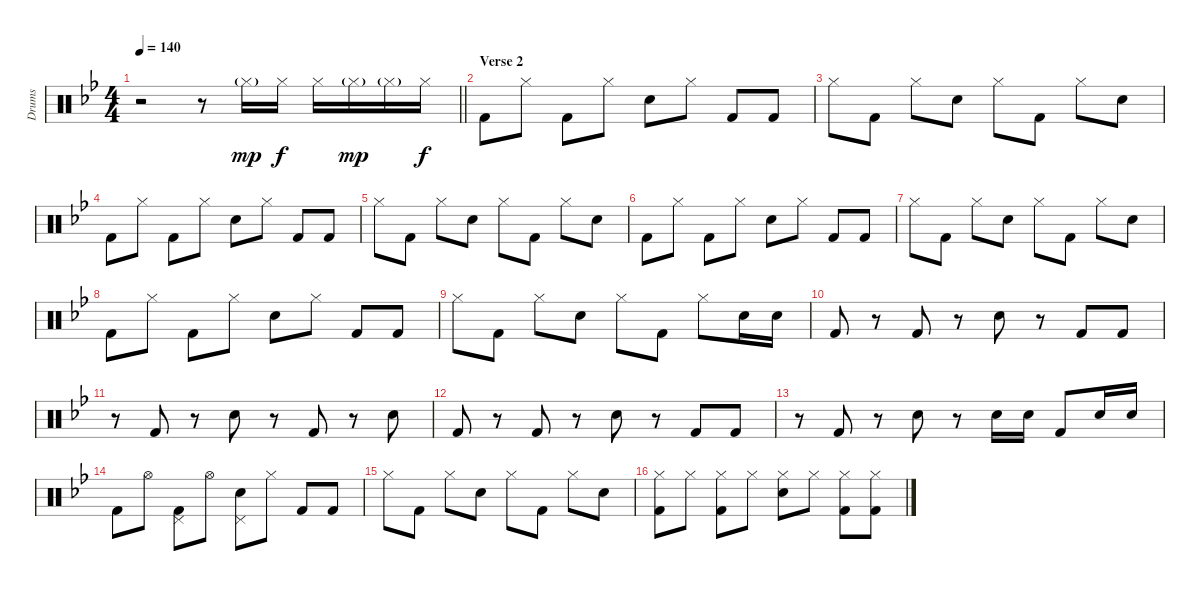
\track ("Drums" "Drums") {instrument percussion}
\staff {score}
\articulation defaults
\ts (4 4)
\tempo 140
\clef neutral
\barLineRight lightlight
\ks gminor
r.2{dy f} r.8 "Hi-Hat (closed)"{g}.16{dy mp} "Hi-Hat (closed)".16{dy f} "Hi-Hat (closed)".16 "Hi-Hat (closed)"{g}.16{dy mp} "Hi-Hat (closed)"{g}.16 "Hi-Hat (closed)".16{dy f} |
\section ("" "Verse 2")
"Kick (hit) 2".8 "Hi-Hat (closed)".8 "Kick (hit) 2".8 "Hi-Hat (closed)".8 "Electric Snare (hit)".8 "Hi-Hat (closed)".8 "Kick (hit) 2".8 "Kick (hit) 2".8 |
"Hi-Hat (closed)".8 "Kick (hit) 2".8 "Hi-Hat (closed)".8 "Electric Snare (hit)".8 "Hi-Hat (closed)".8 "Kick (hit) 2".8 "Hi-Hat (closed)".8 "Electric Snare (hit)".8 |
"Kick (hit) 2".8 "Hi-Hat (closed)".8 "Kick (hit) 2".8 "Hi-Hat (closed)".8 "Electric Snare (hit)".8 "Hi-Hat (closed)".8 "Kick (hit) 2".8 "Kick (hit) 2".8 |
"Hi-Hat (closed)".8 "Kick (hit) 2".8 "Hi-Hat (closed)".8 "Electric Snare (hit)".8 "Hi-Hat (closed)".8 "Kick (hit) 2".8 "Hi-Hat (closed)".8 "Electric Snare (hit)".8 |
"Kick (hit) 2".8 "Hi-Hat (closed)".8 "Kick (hit) 2".8 "Hi-Hat (closed)".8 "Electric Snare (hit)".8 "Hi-Hat (closed)".8 "Kick (hit) 2".8 "Kick (hit) 2".8 |
"Hi-Hat (closed)".8 "Kick (hit) 2".8 "Hi-Hat (closed)".8 "Electric Snare (hit)".8 "Hi-Hat (closed)".8 "Kick (hit) 2".8 "Hi-Hat (closed)".8 "Electric Snare (hit)".8 |
"Kick (hit) 2".8 "Hi-Hat (closed)".8 "Kick (hit) 2".8 "Hi-Hat (closed)".8 "Electric Snare (hit)".8 "Hi-Hat (closed)".8 "Kick (hit) 2".8 "Kick (hit) 2".8 |
"Hi-Hat (closed)".8 "Kick (hit) 2".8 "Hi-Hat (closed)".8 "Electric Snare (hit)".8 "Hi-Hat (closed)".8 "Kick (hit) 2".8 "Hi-Hat (closed)".8 "Electric Snare (hit)".16 "Electric Snare (hit)".16 |
"Kick (hit) 2".8 r.8 "Kick (hit) 2".8 r.8 "Electric Snare (hit)".8 r.8 "Kick (hit) 2".8 "Kick (hit) 2".8 |
r.8 "Kick (hit) 2".8 r.8 "Electric Snare (hit)".8 r.8 "Kick (hit) 2".8 r.8 "Electric Snare (hit)".8 |
"Kick (hit) 2".8 r.8 "Kick (hit) 2".8 r.8 "Electric Snare (hit)".8 r.8 "Kick (hit) 2".8 "Kick (hit) 2".8 |
r.8 "Kick (hit) 2".8 r.8 "Electric Snare (hit)".8 r.8 "Electric Snare (hit)".16 "Electric Snare (hit)".16 "Kick (hit) 2".8 "Electric Snare (hit)".16 "Electric Snare (hit)".16 |
"Kick (hit) 2".8 "Hi-Hat (open)".8 ("Pedal Hi-Hat (hit)" "Kick (hit) 2").8 "Hi-Hat (open)".8 ("Pedal Hi-Hat (hit)" "Electric Snare (hit)").8 "Hi-Hat (closed)".8 "Kick (hit) 2".8 "Kick (hit) 2".8 |
"Hi-Hat (closed)".8 "Kick (hit) 2".8 "Hi-Hat (closed)".8 "Electric Snare (hit)".8 "Hi-Hat (closed)".8 "Kick (hit) 2".8 "Hi-Hat (closed)".8 "Electric Snare (hit)".8 |
("Hi-Hat (closed)" "Kick (hit) 2").8 "Hi-Hat (closed)".8 ("Hi-Hat (closed)" "Kick (hit) 2").8 "Hi-Hat (closed)".8 ("Hi-Hat (closed)" "Electric Snare (hit)").8 "Hi-Hat (closed)".8 ("Hi-Hat (closed)" "Kick (hit) 2").8 ("Hi-Hat (closed)" "Kick (hit) 2").8
